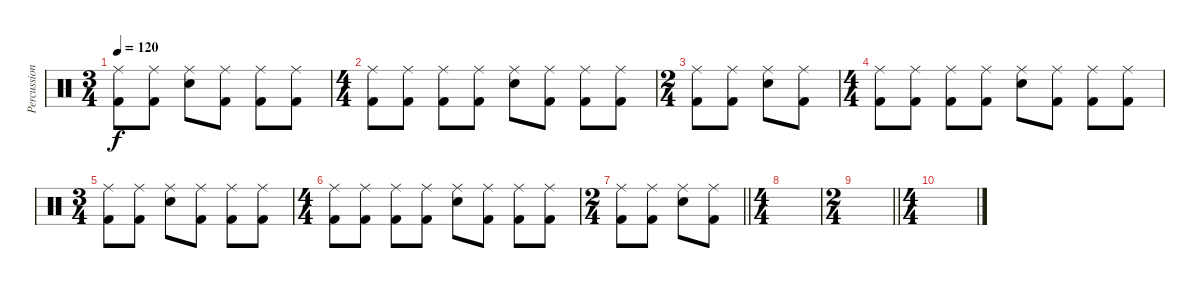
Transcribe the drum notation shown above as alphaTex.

\track ("Percussion" "Percussion") {instrument percussion}
\staff {score}
\articulation defaults
\ts (3 4)
\tempo 120
\clef neutral
\ks c
("Ride (middle)" "Kick (hit) 2").8{dy f} ("Ride (middle)" "Kick (hit) 2").8 ("Ride (middle)" "Snare (hit) 2").8 ("Ride (middle)" "Kick (hit) 2").8 ("Ride (middle)" "Kick (hit) 2").8 ("Ride (middle)" "Kick (hit) 2").8 |
\ts (4 4)
("Ride (middle)" "Kick (hit) 2").8 ("Ride (middle)" "Kick (hit) 2").8 ("Ride (middle)" "Kick (hit) 2").8 ("Ride (middle)" "Kick (hit) 2").8 ("Ride (middle)" "Snare (hit) 2").8 ("Ride (middle)" "Kick (hit) 2").8 ("Ride (middle)" "Kick (hit) 2").8 ("Ride (middle)" "Kick (hit) 2").8 |
\ts (2 4)
("Ride (middle)" "Kick (hit) 2").8 ("Ride (middle)" "Kick (hit) 2").8 ("Ride (middle)" "Snare (hit) 2").8 ("Ride (middle)" "Kick (hit) 2").8 |
\ts (4 4)
("Ride (middle)" "Kick (hit) 2").8 ("Ride (middle)" "Kick (hit) 2").8 ("Ride (middle)" "Kick (hit) 2").8 ("Ride (middle)" "Kick (hit) 2").8 ("Ride (middle)" "Snare (hit) 2").8 ("Ride (middle)" "Kick (hit) 2").8 ("Ride (middle)" "Kick (hit) 2").8 ("Ride (middle)" "Kick (hit) 2").8 |
\ts (3 4)
("Ride (middle)" "Kick (hit) 2").8 ("Ride (middle)" "Kick (hit) 2").8 ("Ride (middle)" "Snare (hit) 2").8 ("Ride (middle)" "Kick (hit) 2").8 ("Ride (middle)" "Kick (hit) 2").8 ("Ride (middle)" "Kick (hit) 2").8 |
\ts (4 4)
("Ride (middle)" "Kick (hit) 2").8 ("Ride (middle)" "Kick (hit) 2").8 ("Ride (middle)" "Kick (hit) 2").8 ("Ride (middle)" "Kick (hit) 2").8 ("Ride (middle)" "Snare (hit) 2").8 ("Ride (middle)" "Kick (hit) 2").8 ("Ride (middle)" "Kick (hit) 2").8 ("Ride (middle)" "Kick (hit) 2").8 |
\ts (2 4)
\barLineRight lightlight
("Ride (middle)" "Kick (hit) 2").8 ("Ride (middle)" "Kick (hit) 2").8 ("Ride (middle)" "Snare (hit) 2").8 ("Ride (middle)" "Kick (hit) 2").8 |
\ts (4 4)
\section ("" "")
|
\ts (2 4)
\barLineRight lightlight
|
\ts (4 4)
\section ("" "")
